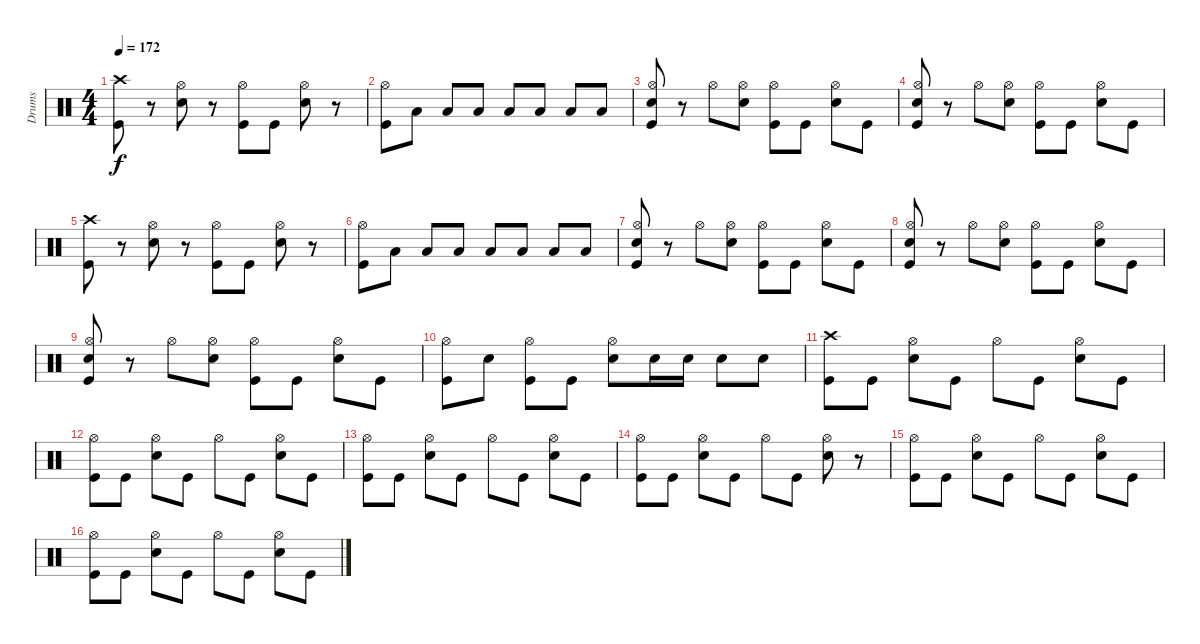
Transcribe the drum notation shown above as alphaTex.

\track ("Drums" "Drums") {instrument percussion}
\staff {score}
\articulation defaults
\ts (4 4)
\tempo 172
\clef neutral
\ks c
("Crash high (hit)" "Kick (hit)").8{dy f} r.8 ("Hi-Hat (open)" "Snare (hit) 2").8 r.8 ("Hi-Hat (open)" "Kick (hit)").8 "Kick (hit)".8 ("Hi-Hat (open)" "Snare (hit) 2").8 r.8 |
("Hi-Hat (open)" "Kick (hit)").8 "Low Tom (hit)".8 "Low Tom (hit)".8 "Low Tom (hit)".8 "Low Tom (hit)".8 "Low Tom (hit)".8 "Low Tom (hit)".8 "Low Tom (hit)".8 |
("Hi-Hat (open)" "Snare (hit) 2" "Kick (hit)").8 r.8 "Hi-Hat (open)".8 ("Hi-Hat (open)" "Snare (hit) 2").8 ("Hi-Hat (open)" "Kick (hit)").8 "Kick (hit)".8 ("Hi-Hat (open)" "Snare (hit) 2").8 "Kick (hit)".8 |
("Hi-Hat (open)" "Snare (hit) 2" "Kick (hit)").8 r.8 "Hi-Hat (open)".8 ("Hi-Hat (open)" "Snare (hit) 2").8 ("Hi-Hat (open)" "Kick (hit)").8 "Kick (hit)".8 ("Hi-Hat (open)" "Snare (hit) 2").8 "Kick (hit)".8 |
("Crash high (hit)" "Kick (hit)").8 r.8 ("Hi-Hat (open)" "Snare (hit) 2").8 r.8 ("Hi-Hat (open)" "Kick (hit)").8 "Kick (hit)".8 ("Hi-Hat (open)" "Snare (hit) 2").8 r.8 |
("Hi-Hat (open)" "Kick (hit)").8 "Low Tom (hit)".8 "Low Tom (hit)".8 "Low Tom (hit)".8 "Low Tom (hit)".8 "Low Tom (hit)".8 "Low Tom (hit)".8 "Low Tom (hit)".8 |
("Hi-Hat (open)" "Snare (hit) 2" "Kick (hit)").8 r.8 "Hi-Hat (open)".8 ("Hi-Hat (open)" "Snare (hit) 2").8 ("Hi-Hat (open)" "Kick (hit)").8 "Kick (hit)".8 ("Hi-Hat (open)" "Snare (hit) 2").8 "Kick (hit)".8 |
("Hi-Hat (open)" "Snare (hit) 2" "Kick (hit)").8 r.8 "Hi-Hat (open)".8 ("Hi-Hat (open)" "Snare (hit) 2").8 ("Hi-Hat (open)" "Kick (hit)").8 "Kick (hit)".8 ("Hi-Hat (open)" "Snare (hit) 2").8 "Kick (hit)".8 |
("Hi-Hat (open)" "Snare (hit) 2" "Kick (hit)").8 r.8 "Hi-Hat (open)".8 ("Hi-Hat (open)" "Snare (hit) 2").8 ("Hi-Hat (open)" "Kick (hit)").8 "Kick (hit)".8 ("Hi-Hat (open)" "Snare (hit) 2").8 "Kick (hit)".8 |
("Hi-Hat (open)" "Kick (hit)").8 "Snare (hit) 2".8 ("Hi-Hat (open)" "Kick (hit)").8 "Kick (hit)".8 ("Hi-Hat (open)" "Snare (hit) 2").8 "Snare (hit) 2".16 "Snare (hit) 2".16 "Snare (hit) 2".8 "Snare (hit) 2".8 |
("Crash high (hit)" "Kick (hit)").8 "Kick (hit)".8 ("Hi-Hat (open)" "Snare (hit) 2").8 "Kick (hit)".8 "Hi-Hat (open)".8 "Kick (hit)".8 ("Hi-Hat (open)" "Snare (hit) 2").8 "Kick (hit)".8 |
("Hi-Hat (open)" "Kick (hit)").8 "Kick (hit)".8 ("Hi-Hat (open)" "Snare (hit) 2").8 "Kick (hit)".8 "Hi-Hat (open)".8 "Kick (hit)".8 ("Hi-Hat (open)" "Snare (hit) 2").8 "Kick (hit)".8 |
("Hi-Hat (open)" "Kick (hit)").8 "Kick (hit)".8 ("Hi-Hat (open)" "Snare (hit) 2").8 "Kick (hit)".8 "Hi-Hat (open)".8 "Kick (hit)".8 ("Hi-Hat (open)" "Snare (hit) 2").8 "Kick (hit)".8 |
("Hi-Hat (open)" "Kick (hit)").8 "Kick (hit)".8 ("Hi-Hat (open)" "Snare (hit) 2").8 "Kick (hit)".8 "Hi-Hat (open)".8 "Kick (hit)".8 ("Hi-Hat (open)" "Snare (hit) 2").8 r.8 |
("Hi-Hat (open)" "Kick (hit)").8 "Kick (hit)".8 ("Hi-Hat (open)" "Snare (hit) 2").8 "Kick (hit)".8 "Hi-Hat (open)".8 "Kick (hit)".8 ("Hi-Hat (open)" "Snare (hit) 2").8 "Kick (hit)".8 |
("Hi-Hat (open)" "Kick (hit)").8 "Kick (hit)".8 ("Hi-Hat (open)" "Snare (hit) 2").8 "Kick (hit)".8 "Hi-Hat (open)".8 "Kick (hit)".8 ("Hi-Hat (open)" "Snare (hit) 2").8 "Kick (hit)".8
